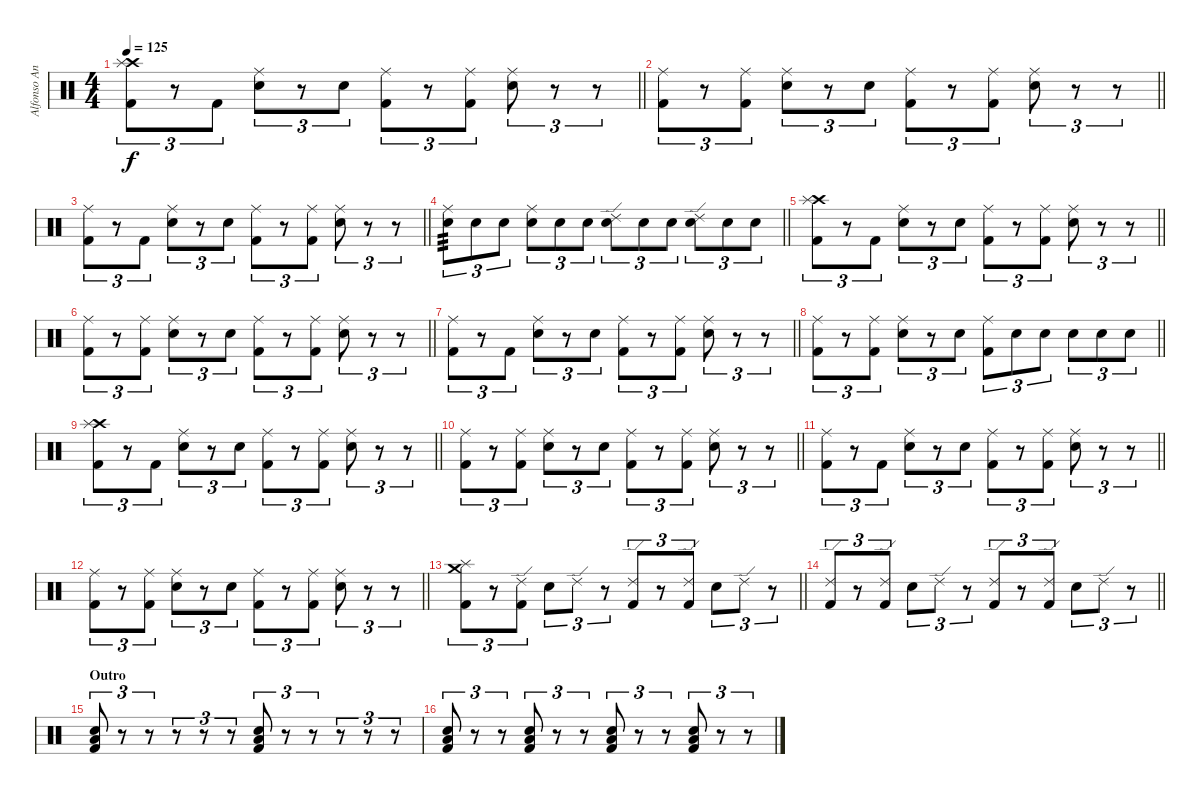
\track ("Alfonso Andre" "Alfonso An") {instrument percussion}
\staff {score}
\articulation defaults
\ts (4 4)
\tempo 125
\clef neutral
\barLineRight lightlight
\ks c
("Crash high (hit)" "Splash (hit)" "Kick (hit) 2").8{tu (3 2) dy f} r.8{tu (3 2)} "Kick (hit) 2".8{tu (3 2)} ("Ride (middle)" "Electric Snare (hit)").8{tu (3 2)} r.8{tu (3 2)} "Electric Snare (hit)".8{tu (3 2)} ("Ride (middle)" "Kick (hit) 2").8{tu (3 2)} r.8{tu (3 2)} ("Ride (middle)" "Kick (hit) 2").8{tu (3 2)} ("Ride (middle)" "Electric Snare (hit)").8{tu (3 2)} r.8{tu (3 2)} r.8{tu (3 2)} |
\barLineRight lightlight
("Ride (middle)" "Kick (hit) 2").8{tu (3 2)} r.8{tu (3 2)} ("Ride (middle)" "Kick (hit) 2").8{tu (3 2)} ("Ride (middle)" "Electric Snare (hit)").8{tu (3 2)} r.8{tu (3 2)} "Electric Snare (hit)".8{tu (3 2)} ("Ride (middle)" "Kick (hit) 2").8{tu (3 2)} r.8{tu (3 2)} ("Ride (middle)" "Kick (hit) 2").8{tu (3 2)} ("Ride (middle)" "Electric Snare (hit)").8{tu (3 2)} r.8{tu (3 2)} r.8{tu (3 2)} |
\barLineRight lightlight
("Ride (middle)" "Kick (hit) 2").8{tu (3 2)} r.8{tu (3 2)} "Kick (hit) 2".8{tu (3 2)} ("Ride (middle)" "Electric Snare (hit)").8{tu (3 2)} r.8{tu (3 2)} "Electric Snare (hit)".8{tu (3 2)} ("Ride (middle)" "Kick (hit) 2").8{tu (3 2)} r.8{tu (3 2)} ("Ride (middle)" "Kick (hit) 2").8{tu (3 2)} ("Ride (middle)" "Electric Snare (hit)").8{tu (3 2)} r.8{tu (3 2)} r.8{tu (3 2)} |
\barLineRight lightlight
("Ride (middle)" "Electric Snare (hit)").8{tu (3 2) tp 3} "Electric Snare (hit)".8{tu (3 2)} "Electric Snare (hit)".8{tu (3 2)} ("Ride (middle)" "Electric Snare (hit)").8{tu (3 2)} "Electric Snare (hit)".8{tu (3 2)} "Electric Snare (hit)".8{tu (3 2)} ("Ride (edge) 2" "Electric Snare (hit)").8{tu (3 2)} "Electric Snare (hit)".8{tu (3 2)} "Electric Snare (hit)".8{tu (3 2)} ("Ride (edge) 2" "Electric Snare (hit)").8{tu (3 2)} "Electric Snare (hit)".8{tu (3 2)} "Electric Snare (hit)".8{tu (3 2)} |
\barLineRight lightlight
("Crash high (hit)" "Splash (hit)" "Kick (hit) 2").8{tu (3 2)} r.8{tu (3 2)} "Kick (hit) 2".8{tu (3 2)} ("Ride (middle)" "Electric Snare (hit)").8{tu (3 2)} r.8{tu (3 2)} "Electric Snare (hit)".8{tu (3 2)} ("Ride (middle)" "Kick (hit) 2").8{tu (3 2)} r.8{tu (3 2)} ("Ride (middle)" "Kick (hit) 2").8{tu (3 2)} ("Ride (middle)" "Electric Snare (hit)").8{tu (3 2)} r.8{tu (3 2)} r.8{tu (3 2)} |
\barLineRight lightlight
("Ride (middle)" "Kick (hit) 2").8{tu (3 2)} r.8{tu (3 2)} ("Ride (middle)" "Kick (hit) 2").8{tu (3 2)} ("Ride (middle)" "Electric Snare (hit)").8{tu (3 2)} r.8{tu (3 2)} "Electric Snare (hit)".8{tu (3 2)} ("Ride (middle)" "Kick (hit) 2").8{tu (3 2)} r.8{tu (3 2)} ("Ride (middle)" "Kick (hit) 2").8{tu (3 2)} ("Ride (middle)" "Electric Snare (hit)").8{tu (3 2)} r.8{tu (3 2)} r.8{tu (3 2)} |
\barLineRight lightlight
("Ride (middle)" "Kick (hit) 2").8{tu (3 2)} r.8{tu (3 2)} "Kick (hit) 2".8{tu (3 2)} ("Ride (middle)" "Electric Snare (hit)").8{tu (3 2)} r.8{tu (3 2)} "Electric Snare (hit)".8{tu (3 2)} ("Ride (middle)" "Kick (hit) 2").8{tu (3 2)} r.8{tu (3 2)} ("Ride (middle)" "Kick (hit) 2").8{tu (3 2)} ("Ride (middle)" "Electric Snare (hit)").8{tu (3 2)} r.8{tu (3 2)} r.8{tu (3 2)} |
\barLineRight lightlight
("Ride (middle)" "Kick (hit) 2").8{tu (3 2)} r.8{tu (3 2)} ("Ride (middle)" "Kick (hit) 2").8{tu (3 2)} ("Ride (middle)" "Electric Snare (hit)").8{tu (3 2)} r.8{tu (3 2)} "Electric Snare (hit)".8{tu (3 2)} ("Ride (middle)" "Kick (hit) 2").8{tu (3 2)} "Electric Snare (hit)".8{tu (3 2)} "Electric Snare (hit)".8{tu (3 2)} "Electric Snare (hit)".8{tu (3 2)} "Electric Snare (hit)".8{tu (3 2)} "Electric Snare (hit)".8{tu (3 2)} |
\barLineRight lightlight
("Crash high (hit)" "Splash (hit)" "Kick (hit) 2").8{tu (3 2)} r.8{tu (3 2)} "Kick (hit) 2".8{tu (3 2)} ("Ride (middle)" "Electric Snare (hit)").8{tu (3 2)} r.8{tu (3 2)} "Electric Snare (hit)".8{tu (3 2)} ("Ride (middle)" "Kick (hit) 2").8{tu (3 2)} r.8{tu (3 2)} ("Ride (middle)" "Kick (hit) 2").8{tu (3 2)} ("Ride (middle)" "Electric Snare (hit)").8{tu (3 2)} r.8{tu (3 2)} r.8{tu (3 2)} |
\barLineRight lightlight
("Ride (middle)" "Kick (hit) 2").8{tu (3 2)} r.8{tu (3 2)} ("Ride (middle)" "Kick (hit) 2").8{tu (3 2)} ("Ride (middle)" "Electric Snare (hit)").8{tu (3 2)} r.8{tu (3 2)} "Electric Snare (hit)".8{tu (3 2)} ("Ride (middle)" "Kick (hit) 2").8{tu (3 2)} r.8{tu (3 2)} ("Ride (middle)" "Kick (hit) 2").8{tu (3 2)} ("Ride (middle)" "Electric Snare (hit)").8{tu (3 2)} r.8{tu (3 2)} r.8{tu (3 2)} |
\barLineRight lightlight
("Ride (middle)" "Kick (hit) 2").8{tu (3 2)} r.8{tu (3 2)} "Kick (hit) 2".8{tu (3 2)} ("Ride (middle)" "Electric Snare (hit)").8{tu (3 2)} r.8{tu (3 2)} "Electric Snare (hit)".8{tu (3 2)} ("Ride (middle)" "Kick (hit) 2").8{tu (3 2)} r.8{tu (3 2)} ("Ride (middle)" "Kick (hit) 2").8{tu (3 2)} ("Ride (middle)" "Electric Snare (hit)").8{tu (3 2)} r.8{tu (3 2)} r.8{tu (3 2)} |
\barLineRight lightlight
("Ride (middle)" "Kick (hit) 2").8{tu (3 2)} r.8{tu (3 2)} ("Ride (middle)" "Kick (hit) 2").8{tu (3 2)} ("Ride (middle)" "Electric Snare (hit)").8{tu (3 2)} r.8{tu (3 2)} "Electric Snare (hit)".8{tu (3 2)} ("Ride (middle)" "Kick (hit) 2").8{tu (3 2)} r.8{tu (3 2)} ("Ride (middle)" "Kick (hit) 2").8{tu (3 2)} ("Ride (middle)" "Electric Snare (hit)").8{tu (3 2)} r.8{tu (3 2)} r.8{tu (3 2)} |
\barLineRight lightlight
("Crash medium (hit)" "Splash (hit)" "Kick (hit) 2").8{tu (3 2)} r.8{tu (3 2)} ("Ride (edge) 2" "Kick (hit) 2").8{tu (3 2)} "Electric Snare (hit)".8{tu (3 2)} "Ride (edge) 2".8{tu (3 2)} r.8{tu (3 2)} ("Ride (edge) 2" "Kick (hit) 2").8{tu (3 2)} r.8{tu (3 2)} ("Ride (edge) 2" "Kick (hit) 2").8{tu (3 2)} "Electric Snare (hit)".8{tu (3 2)} "Ride (edge) 2".8{tu (3 2)} r.8{tu (3 2)} |
\barLineRight lightlight
("Ride (edge) 2" "Kick (hit) 2").8{tu (3 2)} r.8{tu (3 2)} ("Ride (edge) 2" "Kick (hit) 2").8{tu (3 2)} "Electric Snare (hit)".8{tu (3 2)} "Ride (edge) 2".8{tu (3 2)} r.8{tu (3 2)} ("Ride (edge) 2" "Kick (hit) 2").8{tu (3 2)} r.8{tu (3 2)} ("Ride (edge) 2" "Kick (hit) 2").8{tu (3 2)} "Electric Snare (hit)".8{tu (3 2)} "Ride (edge) 2".8{tu (3 2)} r.8{tu (3 2)} |
\section ("" "Outro")
("Low Tom (hit)" "Electric Snare (hit)" "Kick (hit) 2").8{tu (3 2)} r.8{tu (3 2)} r.8{tu (3 2)} r.8{tu (3 2)} r.8{tu (3 2)} r.8{tu (3 2)} ("Low Tom (hit)" "Electric Snare (hit)" "Kick (hit) 2").8{tu (3 2)} r.8{tu (3 2)} r.8{tu (3 2)} r.8{tu (3 2)} r.8{tu (3 2)} r.8{tu (3 2)} |
("Low Tom (hit)" "Electric Snare (hit)" "Kick (hit) 2").8{tu (3 2)} r.8{tu (3 2)} r.8{tu (3 2)} ("Low Tom (hit)" "Electric Snare (hit)" "Kick (hit) 2").8{tu (3 2)} r.8{tu (3 2)} r.8{tu (3 2)} ("Low Tom (hit)" "Electric Snare (hit)" "Kick (hit) 2").8{tu (3 2)} r.8{tu (3 2)} r.8{tu (3 2)} ("Low Tom (hit)" "Electric Snare (hit)" "Kick (hit) 2").8{tu (3 2)} r.8{tu (3 2)} r.8{tu (3 2)}
